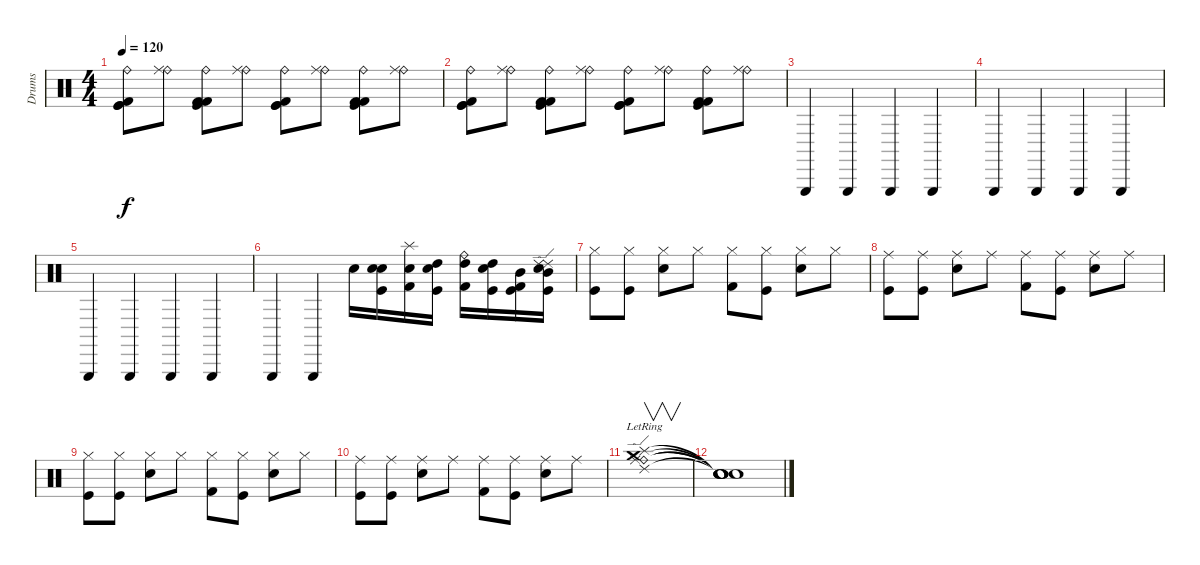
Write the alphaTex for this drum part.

\track ("Drums" "Drums") {instrument percussion}
\staff {score}
\articulation defaults
\ts (4 4)
\tempo 120
\clef neutral
\ks c
("Ride (bell)" "Kick (hit)" "Kick (hit) 2" "Kick (hit)").8{dy f} ("Ride (bell)" "Ride (middle)").8 ("Ride (bell)" "Kick (hit) 2" "Kick (hit)" "Kick (hit) 2").8 ("Ride (bell)" "Ride (middle)").8 ("Ride (bell)" "Kick (hit)" "Kick (hit) 2" "Kick (hit)").8 ("Ride (bell)" "Ride (middle)").8 ("Ride (bell)" "Kick (hit) 2" "Kick (hit)" "Kick (hit) 2").8 ("Ride (bell)" "Ride (middle)").8 |
("Ride (bell)" "Kick (hit)" "Kick (hit) 2" "Kick (hit)").8 ("Ride (bell)" "Ride (middle)").8 ("Ride (bell)" "Kick (hit) 2" "Kick (hit)" "Kick (hit) 2").8 ("Ride (bell)" "Ride (middle)").8 ("Ride (bell)" "Kick (hit)" "Kick (hit) 2" "Kick (hit)").8 ("Ride (bell)" "Ride (middle)").8 ("Ride (bell)" "Kick (hit) 2" "Kick (hit)" "Kick (hit) 2").8 ("Ride (bell)" "Ride (middle)").8 |
"Triangle (hit)".4 "Triangle (hit)".4 "Triangle (hit)".4 "Triangle (hit)".4 |
"Triangle (hit)".4 "Triangle (hit)".4 "Triangle (hit)".4 "Triangle (hit)".4 |
"Triangle (hit)".4 "Triangle (hit)".4 "Triangle (hit)".4 "Triangle (hit)".4 |
"Triangle (hit)".4 "Triangle (hit)".4 "Electric Snare (hit)".16 ("Electric Snare (hit)" "Snare (hit) 2" "Kick (hit)").16 ("Electric Snare (hit)" "Kick (hit) 2" "Splash (hit)").16 ("High Tom (hit)" "Snare (hit) 2" "Kick (hit)").16 ("High Tom (hit)" "Kick (hit) 2" "Ride (bell)").16 ("High Tom (hit)" "Snare (hit) 2" "Kick (hit)").16 ("Mid Tom (hit)" "Kick (hit) 2" "Kick (hit)").16 ("Mid Tom (hit)" "Snare (hit) 2" "Ride (edge) 2" "Kick (hit)" "Ride (edge) 2").16 |
("Hi-Hat (closed)" "Kick (hit)").8 ("Hi-Hat (closed)" "Kick (hit)").8 ("Hi-Hat (closed)" "Snare (hit) 2").8 "Hi-Hat (closed)".8 ("Hi-Hat (closed)" "Kick (hit) 2").8 ("Hi-Hat (closed)" "Kick (hit)").8 ("Hi-Hat (closed)" "Snare (hit) 2").8 "Hi-Hat (closed)".8 |
("Ride (middle)" "Kick (hit)").8 ("Ride (middle)" "Kick (hit)").8 ("Ride (middle)" "Snare (hit) 2").8 "Ride (middle)".8 ("Ride (middle)" "Kick (hit) 2").8 ("Ride (middle)" "Kick (hit)").8 ("Ride (middle)" "Snare (hit) 2").8 "Ride (middle)".8 |
("Hi-Hat (closed)" "Kick (hit)").8 ("Hi-Hat (closed)" "Kick (hit)").8 ("Hi-Hat (closed)" "Snare (hit) 2").8 "Hi-Hat (closed)".8 ("Hi-Hat (closed)" "Kick (hit) 2").8 ("Hi-Hat (closed)" "Kick (hit)").8 ("Hi-Hat (closed)" "Snare (hit) 2").8 "Hi-Hat (closed)".8 |
("Ride (middle)" "Kick (hit)").8 ("Ride (middle)" "Kick (hit)").8 ("Ride (middle)" "Snare (hit) 2").8 "Ride (middle)".8 ("Ride (middle)" "Kick (hit) 2").8 ("Ride (middle)" "Kick (hit)").8 ("Ride (middle)" "Snare (hit) 2").8 "Ride (middle)".8 |
("Ride (edge) 2"{lr} "Crash medium (hit)"{lr} "Splash (hit)"{lr} "Ride (bell)"{lr} "Ride (middle)"{lr}).1{v} |
("Snare (hit)"{t} "Snare (hit)"{t} "Snare (hit)"{t} "Snare (hit)"{t} "Snare (hit)"{t}).1
